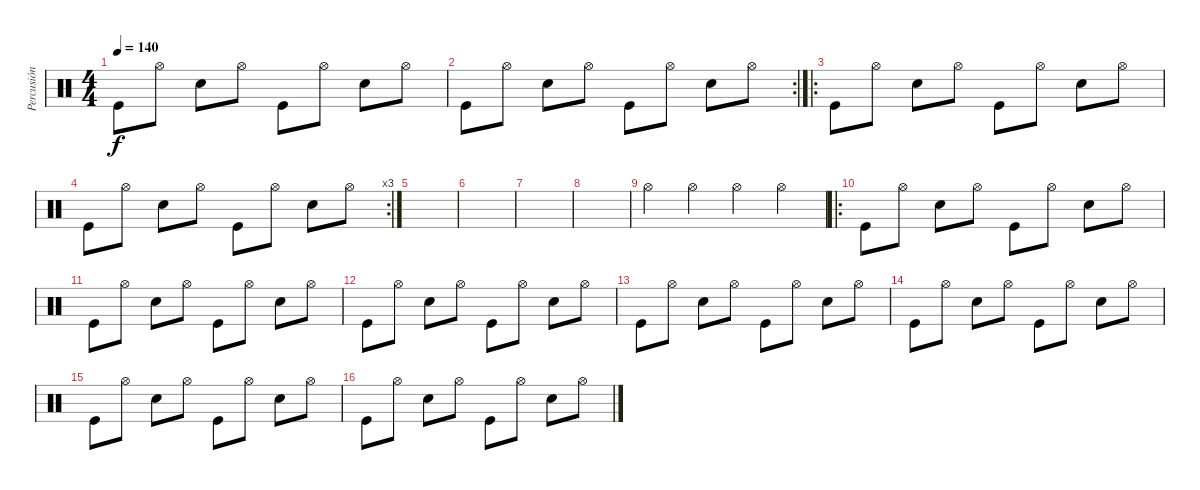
\track ("Percusión" "Percusión") {instrument percussion}
\staff {score}
\articulation defaults
\ts (4 4)
\tempo 140
\clef neutral
\ks c "Kick (hit)".8{dy f} "Hi-Hat (open)".8 "Electric Snare (hit)".8 "Hi-Hat (open)".8 "Kick (hit)".8 "Hi-Hat (open)".8 "Electric Snare (hit)".8 "Hi-Hat (open)".8
|
\rc 2 "Kick (hit)".8 "Hi-Hat (open)".8 "Electric Snare (hit)".8 "Hi-Hat (open)".8 "Kick (hit)".8 "Hi-Hat (open)".8 "Electric Snare (hit)".8 "Hi-Hat (open)".8
|
\ro "Kick (hit)".8 "Hi-Hat (open)".8 "Electric Snare (hit)".8 "Hi-Hat (open)".8 "Kick (hit)".8 "Hi-Hat (open)".8 "Electric Snare (hit)".8 "Hi-Hat (open)".8
|
\rc 3 "Kick (hit)".8 "Hi-Hat (open)".8 "Electric Snare (hit)".8 "Hi-Hat (open)".8 "Kick (hit)".8 "Hi-Hat (open)".8 "Electric Snare (hit)".8 "Hi-Hat (open)".8
|
|
|
|
|
"Hi-Hat (open)".4 "Hi-Hat (open)".4 "Hi-Hat (open)".4 "Hi-Hat (open)".4 |
\ro "Kick (hit)".8 "Hi-Hat (open)".8 "Electric Snare (hit)".8 "Hi-Hat (open)".8 "Kick (hit)".8 "Hi-Hat (open)".8 "Electric Snare (hit)".8 "Hi-Hat (open)".8
|
"Kick (hit)".8 "Hi-Hat (open)".8 "Electric Snare (hit)".8 "Hi-Hat (open)".8 "Kick (hit)".8 "Hi-Hat (open)".8 "Electric Snare (hit)".8 "Hi-Hat (open)".8 |
"Kick (hit)".8 "Hi-Hat (open)".8 "Electric Snare (hit)".8 "Hi-Hat (open)".8 "Kick (hit)".8 "Hi-Hat (open)".8 "Electric Snare (hit)".8 "Hi-Hat (open)".8 |
"Kick (hit)".8 "Hi-Hat (open)".8 "Electric Snare (hit)".8 "Hi-Hat (open)".8 "Kick (hit)".8 "Hi-Hat (open)".8 "Electric Snare (hit)".8 "Hi-Hat (open)".8 |
"Kick (hit)".8 "Hi-Hat (open)".8 "Electric Snare (hit)".8 "Hi-Hat (open)".8 "Kick (hit)".8 "Hi-Hat (open)".8 "Electric Snare (hit)".8 "Hi-Hat (open)".8 |
"Kick (hit)".8 "Hi-Hat (open)".8 "Electric Snare (hit)".8 "Hi-Hat (open)".8 "Kick (hit)".8 "Hi-Hat (open)".8 "Electric Snare (hit)".8 "Hi-Hat (open)".8 |
"Kick (hit)".8 "Hi-Hat (open)".8 "Electric Snare (hit)".8 "Hi-Hat (open)".8 "Kick (hit)".8 "Hi-Hat (open)".8 "Electric Snare (hit)".8 "Hi-Hat (open)".8
